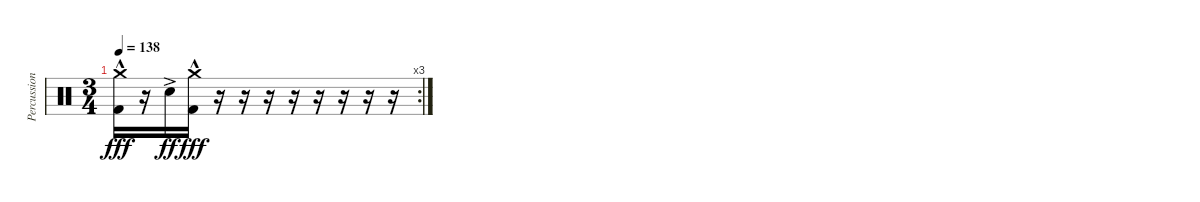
\track ("Percussion" "Percussion") {instrument percussion}
\staff {score}
\articulation defaults
\rc 3
\ts (3 4)
\tempo 138
\clef neutral
\ks c
("Crash medium (hit)"{hac} "Kick (hit) 2"{hac}).16{dy fff} r.16 "Snare (hit) 2"{ac}.16{dy ff} ("Crash medium (hit)"{hac} "Kick (hit) 2"{hac}).16{dy fff} r.16 r.16 r.16 r.16 r.16 r.16 r.16 r.16
